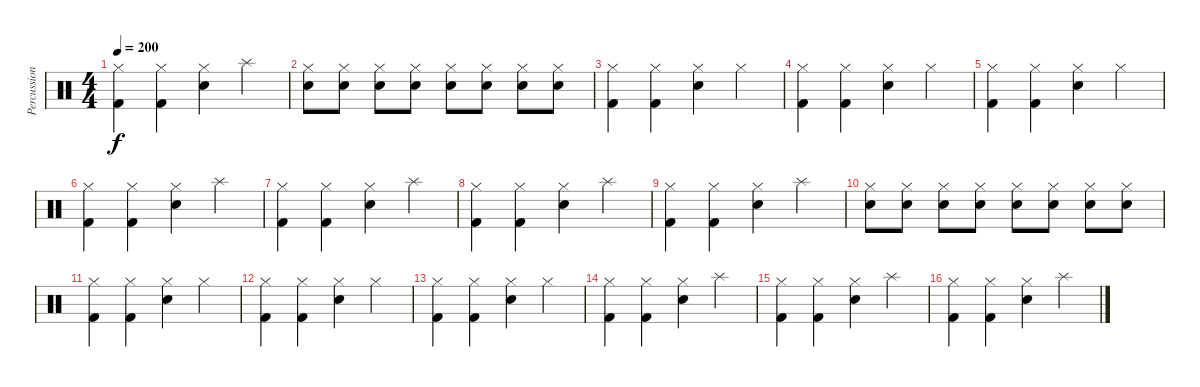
\track ("Percussion" "Percussion") {instrument percussion}
\staff {score}
\articulation defaults
\ts (4 4)
\tempo 200
\clef neutral
\ks c
("Kick (hit) 2" "Hi-Hat (closed)").4{dy f} ("Kick (hit) 2" "Hi-Hat (closed)").4 ("Snare (hit) 2" "Hi-Hat (closed)").4 "Splash (hit)".4 |
("Snare (hit) 2" "Hi-Hat (closed)").8 ("Snare (hit) 2" "Hi-Hat (closed)").8 ("Snare (hit) 2" "Hi-Hat (closed)").8 ("Snare (hit) 2" "Hi-Hat (closed)").8 ("Snare (hit) 2" "Hi-Hat (closed)").8 ("Snare (hit) 2" "Hi-Hat (closed)").8 ("Snare (hit) 2" "Hi-Hat (closed)").8 ("Snare (hit) 2" "Hi-Hat (closed)").8 |
("Kick (hit) 2" "Hi-Hat (closed)").4 ("Kick (hit) 2" "Hi-Hat (closed)").4 ("Snare (hit) 2" "Hi-Hat (closed)").4 "Hi-Hat (closed)".4 |
("Kick (hit) 2" "Hi-Hat (closed)").4 ("Kick (hit) 2" "Hi-Hat (closed)").4 ("Snare (hit) 2" "Hi-Hat (closed)").4 "Hi-Hat (closed)".4 |
("Kick (hit) 2" "Hi-Hat (closed)").4 ("Kick (hit) 2" "Hi-Hat (closed)").4 ("Snare (hit) 2" "Hi-Hat (closed)").4 "Hi-Hat (closed)".4 |
("Kick (hit) 2" "Hi-Hat (closed)").4 ("Kick (hit) 2" "Hi-Hat (closed)").4 ("Snare (hit) 2" "Hi-Hat (closed)").4 "Splash (hit)".4 |
("Kick (hit) 2" "Hi-Hat (closed)").4 ("Kick (hit) 2" "Hi-Hat (closed)").4 ("Snare (hit) 2" "Hi-Hat (closed)").4 "Splash (hit)".4 |
("Kick (hit) 2" "Hi-Hat (closed)").4 ("Kick (hit) 2" "Hi-Hat (closed)").4 ("Snare (hit) 2" "Hi-Hat (closed)").4 "Splash (hit)".4 |
("Kick (hit) 2" "Hi-Hat (closed)").4 ("Kick (hit) 2" "Hi-Hat (closed)").4 ("Snare (hit) 2" "Hi-Hat (closed)").4 "Splash (hit)".4 |
("Snare (hit) 2" "Hi-Hat (closed)").8 ("Snare (hit) 2" "Hi-Hat (closed)").8 ("Snare (hit) 2" "Hi-Hat (closed)").8 ("Snare (hit) 2" "Hi-Hat (closed)").8 ("Snare (hit) 2" "Hi-Hat (closed)").8 ("Snare (hit) 2" "Hi-Hat (closed)").8 ("Snare (hit) 2" "Hi-Hat (closed)").8 ("Snare (hit) 2" "Hi-Hat (closed)").8 |
("Kick (hit) 2" "Hi-Hat (closed)").4 ("Kick (hit) 2" "Hi-Hat (closed)").4 ("Snare (hit) 2" "Hi-Hat (closed)").4 "Hi-Hat (closed)".4 |
("Kick (hit) 2" "Hi-Hat (closed)").4 ("Kick (hit) 2" "Hi-Hat (closed)").4 ("Snare (hit) 2" "Hi-Hat (closed)").4 "Hi-Hat (closed)".4 |
("Kick (hit) 2" "Hi-Hat (closed)").4 ("Kick (hit) 2" "Hi-Hat (closed)").4 ("Snare (hit) 2" "Hi-Hat (closed)").4 "Hi-Hat (closed)".4 |
("Kick (hit) 2" "Hi-Hat (closed)").4 ("Kick (hit) 2" "Hi-Hat (closed)").4 ("Snare (hit) 2" "Hi-Hat (closed)").4 "Splash (hit)".4 |
("Kick (hit) 2" "Hi-Hat (closed)").4 ("Kick (hit) 2" "Hi-Hat (closed)").4 ("Snare (hit) 2" "Hi-Hat (closed)").4 "Splash (hit)".4 |
("Kick (hit) 2" "Hi-Hat (closed)").4 ("Kick (hit) 2" "Hi-Hat (closed)").4 ("Snare (hit) 2" "Hi-Hat (closed)").4 "Splash (hit)".4
